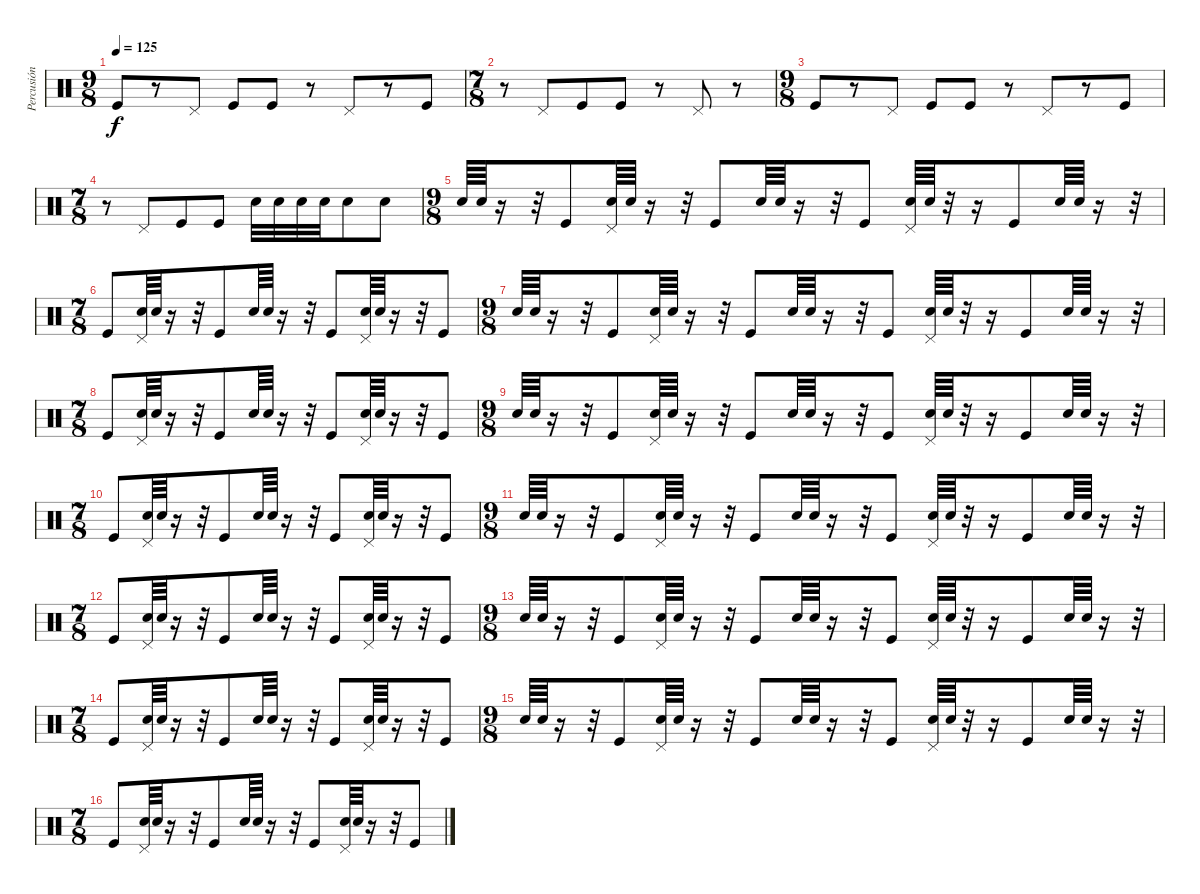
\track ("Percusión" "Percusión") {instrument percussion}
\staff {score}
\articulation defaults
\ts (9 8)
\tempo 125
\clef neutral
\ks c "Kick (hit)".8{dy f}
r.8 "Pedal Hi-Hat (hit)".8 "Kick (hit)".8 "Kick (hit)".8 r.8 "Pedal Hi-Hat (hit)".8 r.8 "Kick (hit)".8 |
\ts (7 8)
r.8 "Pedal Hi-Hat (hit)".8 "Kick (hit)".8 "Kick (hit)".8 r.8 "Pedal Hi-Hat (hit)".8 r.8 |
\ts (9 8)
"Kick (hit)".8 r.8 "Pedal Hi-Hat (hit)".8 "Kick (hit)".8 "Kick (hit)".8 r.8 "Pedal Hi-Hat (hit)".8 r.8 "Kick (hit)".8 |
\ts (7 8)
r.8 "Pedal Hi-Hat (hit)".8 "Kick (hit)".8 "Kick (hit)".8 "Electric Snare (hit)".32 "Electric Snare (hit)".32 "Electric Snare (hit)".32 "Electric Snare (hit)".32 "Electric Snare (hit)".8 "Electric Snare (hit)".8 |
\ts (9 8)
"Electric Snare (hit)".64 "Electric Snare (hit)".64 r.16 r.32 "Kick (hit)".8 ("Pedal Hi-Hat (hit)" "Electric Snare (hit)").64 "Electric Snare (hit)".64 r.16 r.32 "Kick (hit)".8 "Electric Snare (hit)".64 "Electric Snare (hit)".64 r.16 r.32 "Kick (hit)".8 ("Pedal Hi-Hat (hit)" "Electric Snare (hit)").64 "Electric Snare (hit)".64 r.32 r.16 "Kick (hit)".8 "Electric Snare (hit)".64 "Electric Snare (hit)".64 r.16 r.32 |
\ts (7 8)
"Kick (hit)".8 ("Pedal Hi-Hat (hit)" "Electric Snare (hit)").64 "Electric Snare (hit)".64 r.16 r.32 "Kick (hit)".8 "Electric Snare (hit)".64 "Electric Snare (hit)".64 r.16 r.32 "Kick (hit)".8 ("Pedal Hi-Hat (hit)" "Electric Snare (hit)").64 "Electric Snare (hit)".64 r.16 r.32 "Kick (hit)".8 |
\ts (9 8)
"Electric Snare (hit)".64 "Electric Snare (hit)".64 r.16 r.32 "Kick (hit)".8 ("Pedal Hi-Hat (hit)" "Electric Snare (hit)").64 "Electric Snare (hit)".64 r.16 r.32 "Kick (hit)".8 "Electric Snare (hit)".64 "Electric Snare (hit)".64 r.16 r.32 "Kick (hit)".8 ("Pedal Hi-Hat (hit)" "Electric Snare (hit)").64 "Electric Snare (hit)".64 r.32 r.16 "Kick (hit)".8 "Electric Snare (hit)".64 "Electric Snare (hit)".64 r.16 r.32 |
\ts (7 8)
"Kick (hit)".8 ("Pedal Hi-Hat (hit)" "Electric Snare (hit)").64 "Electric Snare (hit)".64 r.16 r.32 "Kick (hit)".8 "Electric Snare (hit)".64 "Electric Snare (hit)".64 r.16 r.32 "Kick (hit)".8 ("Pedal Hi-Hat (hit)" "Electric Snare (hit)").64 "Electric Snare (hit)".64 r.16 r.32 "Kick (hit)".8 |
\ts (9 8)
"Electric Snare (hit)".64 "Electric Snare (hit)".64 r.16 r.32 "Kick (hit)".8 ("Pedal Hi-Hat (hit)" "Electric Snare (hit)").64 "Electric Snare (hit)".64 r.16 r.32 "Kick (hit)".8 "Electric Snare (hit)".64 "Electric Snare (hit)".64 r.16 r.32 "Kick (hit)".8 ("Pedal Hi-Hat (hit)" "Electric Snare (hit)").64 "Electric Snare (hit)".64 r.32 r.16 "Kick (hit)".8 "Electric Snare (hit)".64 "Electric Snare (hit)".64 r.16 r.32 |
\ts (7 8)
"Kick (hit)".8 ("Pedal Hi-Hat (hit)" "Electric Snare (hit)").64 "Electric Snare (hit)".64 r.16 r.32 "Kick (hit)".8 "Electric Snare (hit)".64 "Electric Snare (hit)".64 r.16 r.32 "Kick (hit)".8 ("Pedal Hi-Hat (hit)" "Electric Snare (hit)").64 "Electric Snare (hit)".64 r.16 r.32 "Kick (hit)".8 |
\ts (9 8)
"Electric Snare (hit)".64 "Electric Snare (hit)".64 r.16 r.32 "Kick (hit)".8 ("Pedal Hi-Hat (hit)" "Electric Snare (hit)").64 "Electric Snare (hit)".64 r.16 r.32 "Kick (hit)".8 "Electric Snare (hit)".64 "Electric Snare (hit)".64 r.16 r.32 "Kick (hit)".8 ("Pedal Hi-Hat (hit)" "Electric Snare (hit)").64 "Electric Snare (hit)".64 r.32 r.16 "Kick (hit)".8 "Electric Snare (hit)".64 "Electric Snare (hit)".64 r.16 r.32 |
\ts (7 8)
"Kick (hit)".8 ("Pedal Hi-Hat (hit)" "Electric Snare (hit)").64 "Electric Snare (hit)".64 r.16 r.32 "Kick (hit)".8 "Electric Snare (hit)".64 "Electric Snare (hit)".64 r.16 r.32 "Kick (hit)".8 ("Pedal Hi-Hat (hit)" "Electric Snare (hit)").64 "Electric Snare (hit)".64 r.16 r.32 "Kick (hit)".8 |
\ts (9 8)
"Electric Snare (hit)".64 "Electric Snare (hit)".64 r.16 r.32 "Kick (hit)".8 ("Pedal Hi-Hat (hit)" "Electric Snare (hit)").64 "Electric Snare (hit)".64 r.16 r.32 "Kick (hit)".8 "Electric Snare (hit)".64 "Electric Snare (hit)".64 r.16 r.32 "Kick (hit)".8 ("Pedal Hi-Hat (hit)" "Electric Snare (hit)").64 "Electric Snare (hit)".64 r.32 r.16 "Kick (hit)".8 "Electric Snare (hit)".64 "Electric Snare (hit)".64 r.16 r.32 |
\ts (7 8)
"Kick (hit)".8 ("Pedal Hi-Hat (hit)" "Electric Snare (hit)").64 "Electric Snare (hit)".64 r.16 r.32 "Kick (hit)".8 "Electric Snare (hit)".64 "Electric Snare (hit)".64 r.16 r.32 "Kick (hit)".8 ("Pedal Hi-Hat (hit)" "Electric Snare (hit)").64 "Electric Snare (hit)".64 r.16 r.32 "Kick (hit)".8 |
\ts (9 8)
"Electric Snare (hit)".64 "Electric Snare (hit)".64 r.16 r.32 "Kick (hit)".8 ("Pedal Hi-Hat (hit)" "Electric Snare (hit)").64 "Electric Snare (hit)".64 r.16 r.32 "Kick (hit)".8 "Electric Snare (hit)".64 "Electric Snare (hit)".64 r.16 r.32 "Kick (hit)".8 ("Pedal Hi-Hat (hit)" "Electric Snare (hit)").64 "Electric Snare (hit)".64 r.32 r.16 "Kick (hit)".8 "Electric Snare (hit)".64 "Electric Snare (hit)".64 r.16 r.32 |
\ts (7 8)
"Kick (hit)".8 ("Pedal Hi-Hat (hit)" "Electric Snare (hit)").64 "Electric Snare (hit)".64 r.16 r.32 "Kick (hit)".8 "Electric Snare (hit)".64 "Electric Snare (hit)".64 r.16 r.32 "Kick (hit)".8 ("Pedal Hi-Hat (hit)" "Electric Snare (hit)").64 "Electric Snare (hit)".64 r.16 r.32 "Kick (hit)".8
